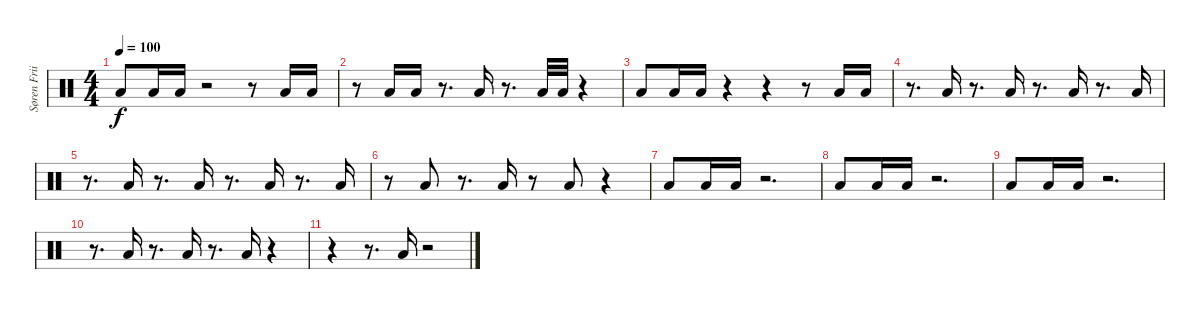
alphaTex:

\track ("Søren Friis (Drums)" "Søren Frii") {instrument percussion}
\staff {score}
\articulation defaults
\ts (4 4)
\tempo 100
\clef neutral
\ks c "Low Floor Tom (hit)".8{dy f} "Low Floor Tom (hit)".16 "Low Floor Tom (hit)".16
r.2 r.8 "Low Floor Tom (hit)".16 "Low Floor Tom (hit)".16 |
r.8 "Low Floor Tom (hit)".16 "Low Floor Tom (hit)".16 r.8{d} "Low Floor Tom (hit)".16 r.8{d} "Low Floor Tom (hit)".32 "Low Floor Tom (hit)".32 r.4 |
"Low Floor Tom (hit)".8 "Low Floor Tom (hit)".16 "Low Floor Tom (hit)".16 r.4 r.4 r.8 "Low Floor Tom (hit)".16 "Low Floor Tom (hit)".16 |
r.8{d} "Low Floor Tom (hit)".16 r.8{d} "Low Floor Tom (hit)".16 r.8{d} "Low Floor Tom (hit)".16 r.8{d} "Low Floor Tom (hit)".16 |
r.8{d} "Low Floor Tom (hit)".16 r.8{d} "Low Floor Tom (hit)".16 r.8{d} "Low Floor Tom (hit)".16 r.8{d} "Low Floor Tom (hit)".16 |
r.8 "Low Floor Tom (hit)".8 r.8{d} "Low Floor Tom (hit)".16 r.8 "Low Floor Tom (hit)".8 r.4 |
"Low Floor Tom (hit)".8 "Low Floor Tom (hit)".16 "Low Floor Tom (hit)".16 r.2{d} |
"Low Floor Tom (hit)".8 "Low Floor Tom (hit)".16 "Low Floor Tom (hit)".16 r.2{d} |
"Low Floor Tom (hit)".8 "Low Floor Tom (hit)".16 "Low Floor Tom (hit)".16 r.2{d} |
r.8{d} "Low Floor Tom (hit)".16 r.8{d} "Low Floor Tom (hit)".16 r.8{d} "Low Floor Tom (hit)".16 r.4 |
r.4 r.8{d} "Low Floor Tom (hit)".16 r.2
